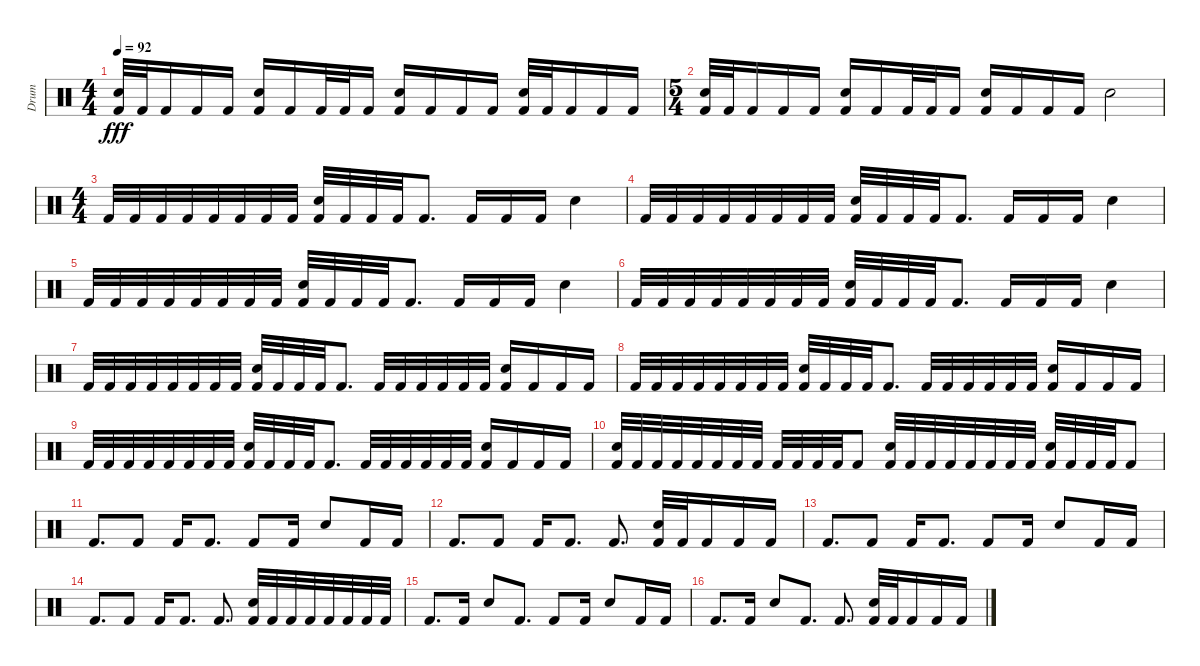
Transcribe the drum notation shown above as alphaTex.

\track ("Drum" "Drum") {instrument percussion}
\staff {score}
\articulation defaults
\ts (4 4)
\tempo 92
\clef neutral
\ks c
("Electric Snare (hit)" "Kick (hit) 2").32{dy fff} "Kick (hit) 2".32 "Kick (hit) 2".16 "Kick (hit) 2".16 "Kick (hit) 2".16 ("Electric Snare (hit)" "Kick (hit) 2").16 "Kick (hit) 2".16 "Kick (hit) 2".32 "Kick (hit) 2".32 "Kick (hit) 2".16 ("Electric Snare (hit)" "Kick (hit) 2").16 "Kick (hit) 2".16 "Kick (hit) 2".16 "Kick (hit) 2".16 ("Electric Snare (hit)" "Kick (hit) 2").32 "Kick (hit) 2".32 "Kick (hit) 2".16 "Kick (hit) 2".16 "Kick (hit) 2".16 |
\ts (5 4)
("Electric Snare (hit)" "Kick (hit) 2").32 "Kick (hit) 2".32 "Kick (hit) 2".16 "Kick (hit) 2".16 "Kick (hit) 2".16 ("Electric Snare (hit)" "Kick (hit) 2").16 "Kick (hit) 2".16 "Kick (hit) 2".32 "Kick (hit) 2".32 "Kick (hit) 2".16 ("Electric Snare (hit)" "Kick (hit) 2").16 "Kick (hit) 2".16 "Kick (hit) 2".16 "Kick (hit) 2".16 "Electric Snare (hit)".2 |
\ts (4 4)
"Kick (hit) 2".32 "Kick (hit) 2".32 "Kick (hit) 2".32 "Kick (hit) 2".32 "Kick (hit) 2".32 "Kick (hit) 2".32 "Kick (hit) 2".32 "Kick (hit) 2".32 ("Electric Snare (hit)" "Kick (hit) 2").32 "Kick (hit) 2".32 "Kick (hit) 2".32 "Kick (hit) 2".32 "Kick (hit) 2".8{d} "Kick (hit) 2".16 "Kick (hit) 2".16 "Kick (hit) 2".16 "Electric Snare (hit)".4 |
"Kick (hit) 2".32 "Kick (hit) 2".32 "Kick (hit) 2".32 "Kick (hit) 2".32 "Kick (hit) 2".32 "Kick (hit) 2".32 "Kick (hit) 2".32 "Kick (hit) 2".32 ("Electric Snare (hit)" "Kick (hit) 2").32 "Kick (hit) 2".32 "Kick (hit) 2".32 "Kick (hit) 2".32 "Kick (hit) 2".8{d} "Kick (hit) 2".16 "Kick (hit) 2".16 "Kick (hit) 2".16 "Electric Snare (hit)".4 |
"Kick (hit) 2".32 "Kick (hit) 2".32 "Kick (hit) 2".32 "Kick (hit) 2".32 "Kick (hit) 2".32 "Kick (hit) 2".32 "Kick (hit) 2".32 "Kick (hit) 2".32 ("Electric Snare (hit)" "Kick (hit) 2").32 "Kick (hit) 2".32 "Kick (hit) 2".32 "Kick (hit) 2".32 "Kick (hit) 2".8{d} "Kick (hit) 2".16 "Kick (hit) 2".16 "Kick (hit) 2".16 "Electric Snare (hit)".4 |
"Kick (hit) 2".32 "Kick (hit) 2".32 "Kick (hit) 2".32 "Kick (hit) 2".32 "Kick (hit) 2".32 "Kick (hit) 2".32 "Kick (hit) 2".32 "Kick (hit) 2".32 ("Electric Snare (hit)" "Kick (hit) 2").32 "Kick (hit) 2".32 "Kick (hit) 2".32 "Kick (hit) 2".32 "Kick (hit) 2".8{d} "Kick (hit) 2".16 "Kick (hit) 2".16 "Kick (hit) 2".16 "Electric Snare (hit)".4 |
"Kick (hit) 2".32 "Kick (hit) 2".32 "Kick (hit) 2".32 "Kick (hit) 2".32 "Kick (hit) 2".32 "Kick (hit) 2".32 "Kick (hit) 2".32 "Kick (hit) 2".32 ("Electric Snare (hit)" "Kick (hit) 2").32 "Kick (hit) 2".32 "Kick (hit) 2".32 "Kick (hit) 2".32 "Kick (hit) 2".8{d} "Kick (hit) 2".32 "Kick (hit) 2".32 "Kick (hit) 2".32 "Kick (hit) 2".32 "Kick (hit) 2".32 "Kick (hit) 2".32 ("Electric Snare (hit)" "Kick (hit) 2").16 "Kick (hit) 2".16 "Kick (hit) 2".16 "Kick (hit) 2".16 |
"Kick (hit) 2".32 "Kick (hit) 2".32 "Kick (hit) 2".32 "Kick (hit) 2".32 "Kick (hit) 2".32 "Kick (hit) 2".32 "Kick (hit) 2".32 "Kick (hit) 2".32 ("Electric Snare (hit)" "Kick (hit) 2").32 "Kick (hit) 2".32 "Kick (hit) 2".32 "Kick (hit) 2".32 "Kick (hit) 2".8{d} "Kick (hit) 2".32 "Kick (hit) 2".32 "Kick (hit) 2".32 "Kick (hit) 2".32 "Kick (hit) 2".32 "Kick (hit) 2".32 ("Electric Snare (hit)" "Kick (hit) 2").16 "Kick (hit) 2".16 "Kick (hit) 2".16 "Kick (hit) 2".16 |
"Kick (hit) 2".32 "Kick (hit) 2".32 "Kick (hit) 2".32 "Kick (hit) 2".32 "Kick (hit) 2".32 "Kick (hit) 2".32 "Kick (hit) 2".32 "Kick (hit) 2".32 ("Electric Snare (hit)" "Kick (hit) 2").32 "Kick (hit) 2".32 "Kick (hit) 2".32 "Kick (hit) 2".32 "Kick (hit) 2".8{d} "Kick (hit) 2".32 "Kick (hit) 2".32 "Kick (hit) 2".32 "Kick (hit) 2".32 "Kick (hit) 2".32 "Kick (hit) 2".32 ("Electric Snare (hit)" "Kick (hit) 2").16 "Kick (hit) 2".16 "Kick (hit) 2".16 "Kick (hit) 2".16 |
("Electric Snare (hit)" "Kick (hit) 2").32 "Kick (hit) 2".32 "Kick (hit) 2".32 "Kick (hit) 2".32 "Kick (hit) 2".32 "Kick (hit) 2".32 "Kick (hit) 2".32 "Kick (hit) 2".32 "Kick (hit) 2".32 "Kick (hit) 2".32 "Kick (hit) 2".32 "Kick (hit) 2".32 "Kick (hit) 2".8 ("Electric Snare (hit)" "Kick (hit) 2").32 "Kick (hit) 2".32 "Kick (hit) 2".32 "Kick (hit) 2".32 "Kick (hit) 2".32 "Kick (hit) 2".32 "Kick (hit) 2".32 "Kick (hit) 2".32 ("Electric Snare (hit)" "Kick (hit) 2").32 "Kick (hit) 2".32 "Kick (hit) 2".32 "Kick (hit) 2".32 "Kick (hit) 2".8 |
"Kick (hit) 2".8{d} "Kick (hit) 2".8 "Kick (hit) 2".16 "Kick (hit) 2".8{d} "Kick (hit) 2".8 "Kick (hit) 2".16 "Electric Snare (hit)".8 "Kick (hit) 2".16 "Kick (hit) 2".16 |
"Kick (hit) 2".8{d} "Kick (hit) 2".8 "Kick (hit) 2".16 "Kick (hit) 2".8{d} "Kick (hit) 2".8{d} ("Electric Snare (hit)" "Kick (hit) 2").32 "Kick (hit) 2".32 "Kick (hit) 2".16 "Kick (hit) 2".16 "Kick (hit) 2".16 |
"Kick (hit) 2".8{d} "Kick (hit) 2".8 "Kick (hit) 2".16 "Kick (hit) 2".8{d} "Kick (hit) 2".8 "Kick (hit) 2".16 "Electric Snare (hit)".8 "Kick (hit) 2".16 "Kick (hit) 2".16 |
"Kick (hit) 2".8{d} "Kick (hit) 2".8 "Kick (hit) 2".16 "Kick (hit) 2".8{d} "Kick (hit) 2".8{d} ("Electric Snare (hit)" "Kick (hit) 2").32 "Kick (hit) 2".32 "Kick (hit) 2".32 "Kick (hit) 2".32 "Kick (hit) 2".32 "Kick (hit) 2".32 "Kick (hit) 2".32 "Kick (hit) 2".32 |
"Kick (hit) 2".8{d} "Kick (hit) 2".16 "Electric Snare (hit)".8 "Kick (hit) 2".8{d} "Kick (hit) 2".8 "Kick (hit) 2".16 "Electric Snare (hit)".8 "Kick (hit) 2".16 "Kick (hit) 2".16 |
"Kick (hit) 2".8{d} "Kick (hit) 2".16 "Electric Snare (hit)".8 "Kick (hit) 2".8{d} "Kick (hit) 2".8{d} ("Electric Snare (hit)" "Kick (hit) 2").32 "Kick (hit) 2".32 "Kick (hit) 2".16 "Kick (hit) 2".16 "Kick (hit) 2".16
